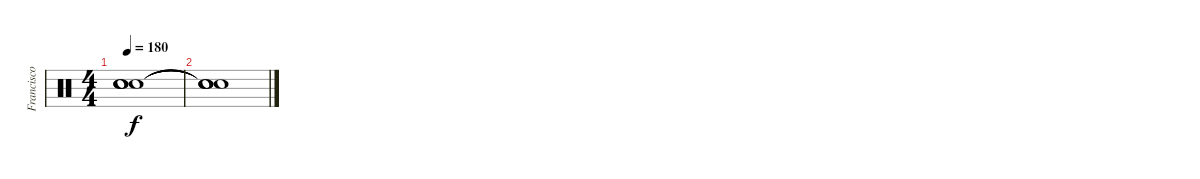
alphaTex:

\track ("Francisco Izquierdo (Percusión)" "Francisco ") {instrument percussion}
\staff {score}
\articulation defaults
\ts (4 4)
\tempo 180
\clef neutral
\ks c
("Snare (hit)"{t} "Snare (hit)"{t} "Snare (hit)"{t} "Snare (hit)"{t}).1{dy f} |
("Snare (hit)"{t} "Snare (hit)"{t} "Snare (hit)"{t} "Snare (hit)"{t}).1
